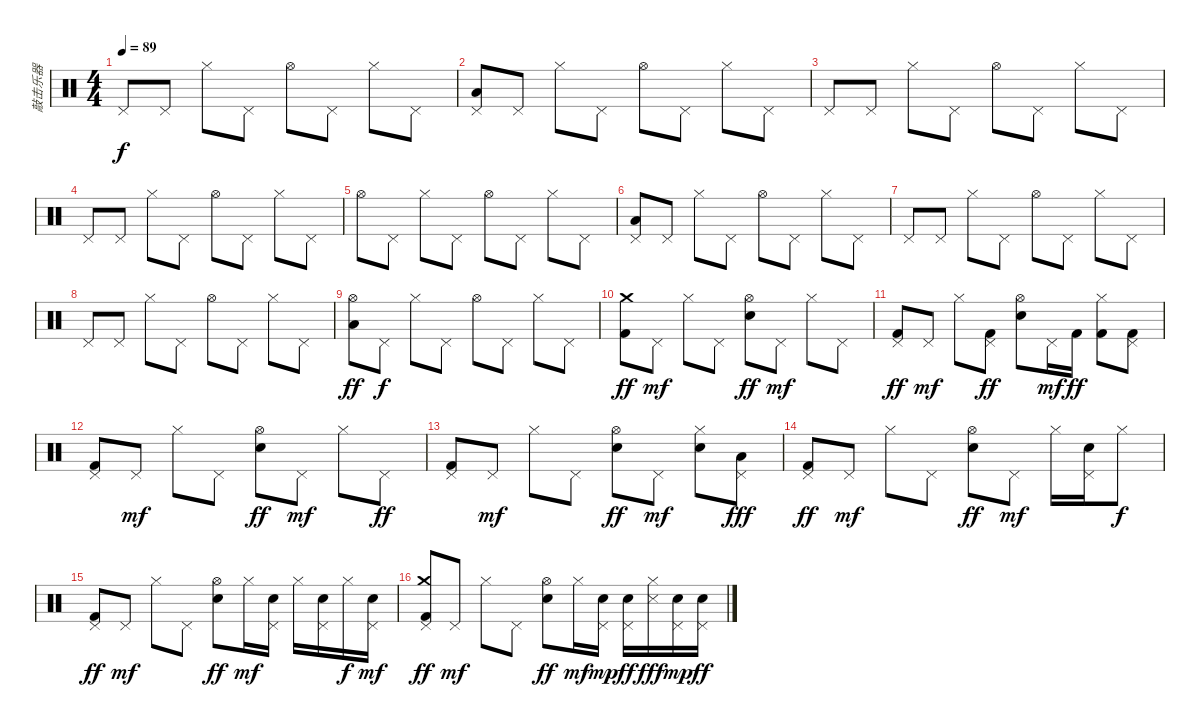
\track ("敲击乐器" "敲击乐器") {instrument percussion}
\staff {score}
\articulation defaults
\ts (4 4)
\tempo 89
\clef neutral
\ks c "Pedal Hi-Hat (hit)".8{dy f} "Pedal Hi-Hat (hit)".8 "Hi-Hat (closed)".8 "Pedal Hi-Hat (hit)".8 "Hi-Hat (open)".8 "Pedal Hi-Hat (hit)".8 "Hi-Hat (closed)".8 "Pedal Hi-Hat (hit)".8
|
("Pedal Hi-Hat (hit)" "Low Floor Tom (hit)").8 "Pedal Hi-Hat (hit)".8 "Hi-Hat (closed)".8 "Pedal Hi-Hat (hit)".8 "Hi-Hat (open)".8 "Pedal Hi-Hat (hit)".8 "Hi-Hat (closed)".8 "Pedal Hi-Hat (hit)".8 |
"Pedal Hi-Hat (hit)".8 "Pedal Hi-Hat (hit)".8 "Hi-Hat (closed)".8 "Pedal Hi-Hat (hit)".8 "Hi-Hat (open)".8 "Pedal Hi-Hat (hit)".8 "Hi-Hat (closed)".8 "Pedal Hi-Hat (hit)".8 |
"Pedal Hi-Hat (hit)".8 "Pedal Hi-Hat (hit)".8 "Hi-Hat (closed)".8 "Pedal Hi-Hat (hit)".8 "Hi-Hat (open)".8 "Pedal Hi-Hat (hit)".8 "Hi-Hat (closed)".8 "Pedal Hi-Hat (hit)".8 |
"Hi-Hat (open)".8 "Pedal Hi-Hat (hit)".8 "Hi-Hat (closed)".8 "Pedal Hi-Hat (hit)".8 "Hi-Hat (open)".8 "Pedal Hi-Hat (hit)".8 "Hi-Hat (closed)".8 "Pedal Hi-Hat (hit)".8 |
("Pedal Hi-Hat (hit)" "Low Floor Tom (hit)").8 "Pedal Hi-Hat (hit)".8 "Hi-Hat (closed)".8 "Pedal Hi-Hat (hit)".8 "Hi-Hat (open)".8 "Pedal Hi-Hat (hit)".8 "Hi-Hat (closed)".8 "Pedal Hi-Hat (hit)".8 |
"Pedal Hi-Hat (hit)".8 "Pedal Hi-Hat (hit)".8 "Hi-Hat (closed)".8 "Pedal Hi-Hat (hit)".8 "Hi-Hat (open)".8 "Pedal Hi-Hat (hit)".8 "Hi-Hat (closed)".8 "Pedal Hi-Hat (hit)".8 |
"Pedal Hi-Hat (hit)".8 "Pedal Hi-Hat (hit)".8 "Hi-Hat (closed)".8 "Pedal Hi-Hat (hit)".8 "Hi-Hat (open)".8 "Pedal Hi-Hat (hit)".8 "Hi-Hat (closed)".8 "Pedal Hi-Hat (hit)".8 |
("Hi-Hat (open)" "Low Floor Tom (hit)").8{dy ff} "Pedal Hi-Hat (hit)".8{dy f} "Hi-Hat (closed)".8 "Pedal Hi-Hat (hit)".8 "Hi-Hat (open)".8 "Pedal Hi-Hat (hit)".8 "Hi-Hat (closed)".8 "Pedal Hi-Hat (hit)".8 |
("Crash medium (hit)" "Kick (hit) 2").8{dy ff} "Pedal Hi-Hat (hit)".8{dy mf} "Hi-Hat (closed)".8 "Pedal Hi-Hat (hit)".8 ("Hi-Hat (open)" "Electric Snare (hit)").8{dy ff} "Pedal Hi-Hat (hit)".8{dy mf} "Hi-Hat (closed)".8 "Pedal Hi-Hat (hit)".8 |
("Pedal Hi-Hat (hit)" "Kick (hit) 2").8{dy ff} "Pedal Hi-Hat (hit)".8{dy mf} "Hi-Hat (closed)".8 ("Pedal Hi-Hat (hit)" "Kick (hit) 2").8{dy ff} ("Hi-Hat (open)" "Electric Snare (hit)").8 "Pedal Hi-Hat (hit)".16{dy mf} "Kick (hit) 2".16{dy ff} ("Hi-Hat (closed)" "Kick (hit) 2").8 ("Pedal Hi-Hat (hit)" "Kick (hit) 2").8 |
("Pedal Hi-Hat (hit)" "Kick (hit) 2").8 "Pedal Hi-Hat (hit)".8{dy mf} "Hi-Hat (closed)".8 "Pedal Hi-Hat (hit)".8 ("Hi-Hat (open)" "Electric Snare (hit)").8{dy ff} "Pedal Hi-Hat (hit)".8{dy mf} "Hi-Hat (closed)".8 "Pedal Hi-Hat (hit)".8{dy ff} |
("Pedal Hi-Hat (hit)" "Kick (hit) 2").8 "Pedal Hi-Hat (hit)".8{dy mf} "Hi-Hat (closed)".8 "Pedal Hi-Hat (hit)".8 ("Hi-Hat (open)" "Electric Snare (hit)").8{dy ff} "Pedal Hi-Hat (hit)".8{dy mf} ("Hi-Hat (closed)" "Electric Snare (hit)").8 ("Pedal Hi-Hat (hit)" "Low Floor Tom (hit)").8{dy fff} |
("Pedal Hi-Hat (hit)" "Kick (hit) 2").8{dy ff} "Pedal Hi-Hat (hit)".8{dy mf} "Hi-Hat (closed)".8 "Pedal Hi-Hat (hit)".8 ("Hi-Hat (open)" "Electric Snare (hit)").8{dy ff} "Pedal Hi-Hat (hit)".8{dy mf} "Hi-Hat (closed)".16 ("Pedal Hi-Hat (hit)" "Electric Snare (hit)").16 "Hi-Hat (closed)".8{dy f} |
("Pedal Hi-Hat (hit)" "Kick (hit) 2").8{dy ff} "Pedal Hi-Hat (hit)".8{dy mf} "Hi-Hat (closed)".8 "Pedal Hi-Hat (hit)".8 ("Hi-Hat (open)" "Electric Snare (hit)").8{dy ff} "Hi-Hat (closed)".16{dy mf} ("Pedal Hi-Hat (hit)" "Electric Snare (hit)").16 "Hi-Hat (closed)".16 ("Pedal Hi-Hat (hit)" "Electric Snare (hit)").16 "Hi-Hat (closed)".16{dy f} ("Pedal Hi-Hat (hit)" "Electric Snare (hit)").16{dy mf} |
("Pedal Hi-Hat (hit)" "Crash medium (hit)" "Kick (hit) 2").8{dy ff} "Pedal Hi-Hat (hit)".8{dy mf} "Hi-Hat (closed)".8 "Pedal Hi-Hat (hit)".8 ("Hi-Hat (open)" "Electric Snare (hit)").8{dy ff} "Hi-Hat (closed)".16{dy mf} ("Pedal Hi-Hat (hit)" "Electric Snare (hit)").16{dy mp} ("Pedal Hi-Hat (hit)" "Electric Snare (hit)").16{dy ff} ("Hi-Hat (closed)" "Snare (side stick) 3").16{dy fff} ("Pedal Hi-Hat (hit)" "Electric Snare (hit)").16{dy mp} ("Pedal Hi-Hat (hit)" "Electric Snare (hit)").16{dy ff}
